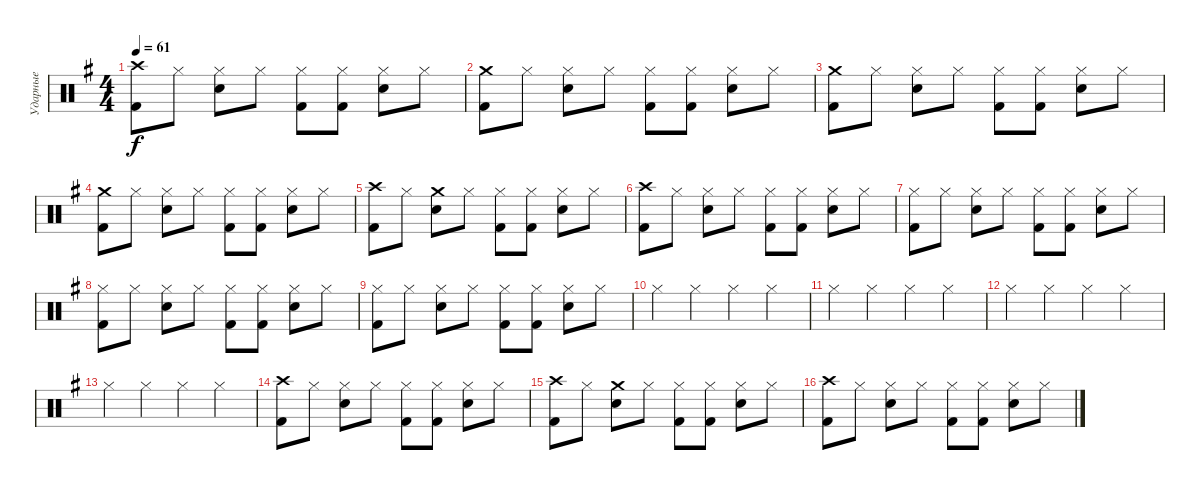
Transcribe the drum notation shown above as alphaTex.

\track ("Ударные" "Ударные") {instrument percussion}
\staff {score}
\articulation defaults
\ts (4 4)
\tempo 61
\clef neutral
\ks g
("Crash high (hit)" "Kick (hit) 2").8{dy f} "Hi-Hat (closed)".8 ("Hi-Hat (closed)" "Electric Snare (hit)").8 "Hi-Hat (closed)".8 ("Hi-Hat (closed)" "Kick (hit) 2").8 ("Hi-Hat (closed)" "Kick (hit) 2").8 ("Hi-Hat (closed)" "Electric Snare (hit)").8 "Hi-Hat (closed)".8 |
("Crash medium (hit)" "Kick (hit) 2").8 "Hi-Hat (closed)".8 ("Hi-Hat (closed)" "Electric Snare (hit)").8 "Hi-Hat (closed)".8 ("Hi-Hat (closed)" "Kick (hit) 2").8 ("Hi-Hat (closed)" "Kick (hit) 2").8 ("Hi-Hat (closed)" "Electric Snare (hit)").8 "Hi-Hat (closed)".8 |
("Crash medium (hit)" "Kick (hit) 2").8 "Hi-Hat (closed)".8 ("Hi-Hat (closed)" "Electric Snare (hit)").8 "Hi-Hat (closed)".8 ("Hi-Hat (closed)" "Kick (hit) 2").8 ("Hi-Hat (closed)" "Kick (hit) 2").8 ("Hi-Hat (closed)" "Electric Snare (hit)").8 "Hi-Hat (closed)".8 |
("Crash medium (hit)" "Kick (hit) 2").8 "Hi-Hat (closed)".8 ("Hi-Hat (closed)" "Electric Snare (hit)").8 "Hi-Hat (closed)".8 ("Hi-Hat (closed)" "Kick (hit) 2").8 ("Hi-Hat (closed)" "Kick (hit) 2").8 ("Hi-Hat (closed)" "Electric Snare (hit)").8 "Hi-Hat (closed)".8 |
("Crash high (hit)" "Kick (hit) 2").8 "Hi-Hat (closed)".8 ("Crash medium (hit)" "Electric Snare (hit)").8 "Hi-Hat (closed)".8 ("Hi-Hat (closed)" "Kick (hit) 2").8 ("Hi-Hat (closed)" "Kick (hit) 2").8 ("Hi-Hat (closed)" "Electric Snare (hit)").8 "Hi-Hat (closed)".8 |
("Crash high (hit)" "Kick (hit) 2").8 "Hi-Hat (closed)".8 ("Hi-Hat (closed)" "Electric Snare (hit)").8 "Hi-Hat (closed)".8 ("Hi-Hat (closed)" "Kick (hit) 2").8 ("Hi-Hat (closed)" "Kick (hit) 2").8 ("Hi-Hat (closed)" "Electric Snare (hit)").8 "Hi-Hat (closed)".8 |
("Hi-Hat (closed)" "Kick (hit) 2").8 "Hi-Hat (closed)".8 ("Hi-Hat (closed)" "Electric Snare (hit)").8 "Hi-Hat (closed)".8 ("Hi-Hat (closed)" "Kick (hit) 2").8 ("Hi-Hat (closed)" "Kick (hit) 2").8 ("Hi-Hat (closed)" "Electric Snare (hit)").8 "Hi-Hat (closed)".8 |
("Hi-Hat (closed)" "Kick (hit) 2").8 "Hi-Hat (closed)".8 ("Hi-Hat (closed)" "Electric Snare (hit)").8 "Hi-Hat (closed)".8 ("Hi-Hat (closed)" "Kick (hit) 2").8 ("Hi-Hat (closed)" "Kick (hit) 2").8 ("Hi-Hat (closed)" "Electric Snare (hit)").8 "Hi-Hat (closed)".8 |
("Hi-Hat (closed)" "Kick (hit) 2").8 "Hi-Hat (closed)".8 ("Hi-Hat (closed)" "Electric Snare (hit)").8 "Hi-Hat (closed)".8 ("Hi-Hat (closed)" "Kick (hit) 2").8 ("Hi-Hat (closed)" "Kick (hit) 2").8 ("Hi-Hat (closed)" "Electric Snare (hit)").8 "Hi-Hat (closed)".8 |
"Hi-Hat (closed)".4 "Hi-Hat (closed)".4 "Hi-Hat (closed)".4 "Hi-Hat (closed)".4 |
"Hi-Hat (closed)".4 "Hi-Hat (closed)".4 "Hi-Hat (closed)".4 "Hi-Hat (closed)".4 |
"Hi-Hat (closed)".4 "Hi-Hat (closed)".4 "Hi-Hat (closed)".4 "Hi-Hat (closed)".4 |
"Hi-Hat (closed)".4 "Hi-Hat (closed)".4 "Hi-Hat (closed)".4 "Hi-Hat (closed)".4 |
("Crash high (hit)" "Kick (hit) 2").8 "Hi-Hat (closed)".8 ("Hi-Hat (closed)" "Electric Snare (hit)").8 "Hi-Hat (closed)".8 ("Hi-Hat (closed)" "Kick (hit) 2").8 ("Hi-Hat (closed)" "Kick (hit) 2").8 ("Hi-Hat (closed)" "Electric Snare (hit)").8 "Hi-Hat (closed)".8 |
("Crash high (hit)" "Kick (hit) 2").8 "Hi-Hat (closed)".8 ("Crash medium (hit)" "Electric Snare (hit)").8 "Hi-Hat (closed)".8 ("Hi-Hat (closed)" "Kick (hit) 2").8 ("Hi-Hat (closed)" "Kick (hit) 2").8 ("Hi-Hat (closed)" "Electric Snare (hit)").8 "Hi-Hat (closed)".8 |
("Crash high (hit)" "Kick (hit) 2").8 "Hi-Hat (closed)".8 ("Hi-Hat (closed)" "Electric Snare (hit)").8 "Hi-Hat (closed)".8 ("Hi-Hat (closed)" "Kick (hit) 2").8 ("Hi-Hat (closed)" "Kick (hit) 2").8 ("Hi-Hat (closed)" "Electric Snare (hit)").8 "Hi-Hat (closed)".8
